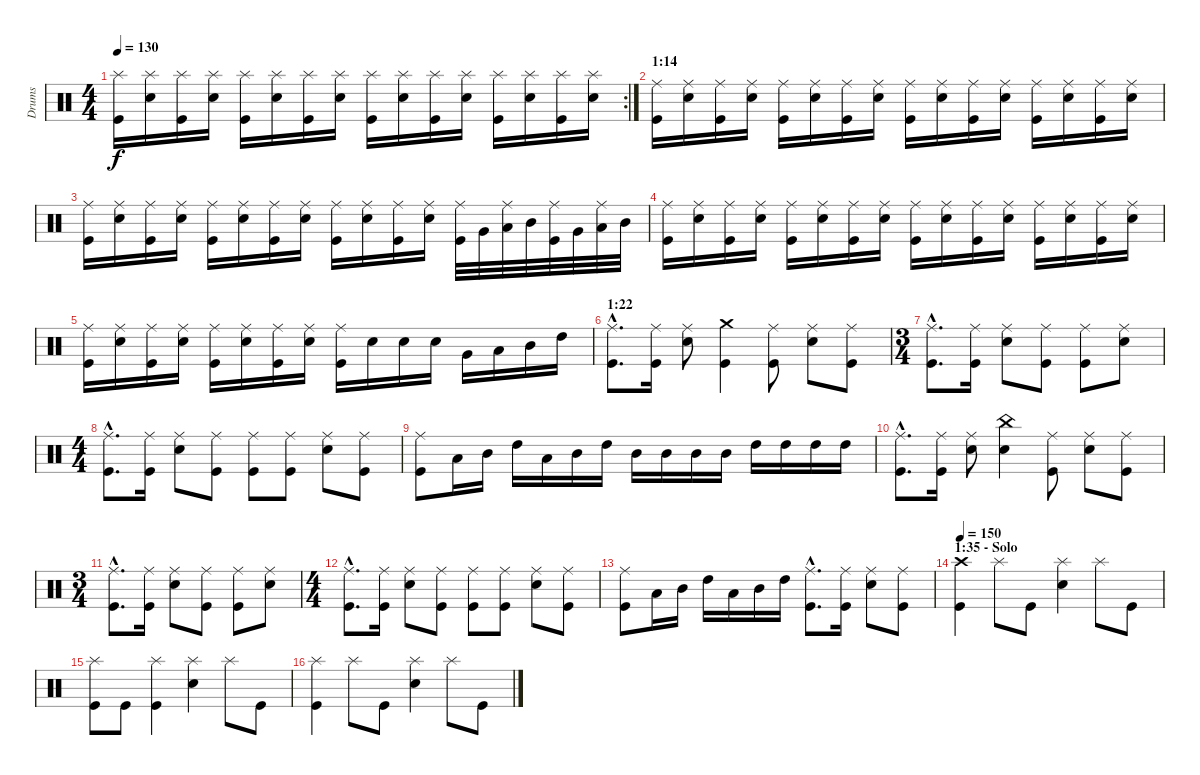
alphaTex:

\track ("Drums" "Drums") {instrument percussion}
\staff {score}
\articulation defaults
\rc 2
\ts (4 4)
\tempo 130
\clef neutral
\ks c
("Kick (hit)" "Splash (hit)").16{dy f} ("Electric Snare (hit)" "Splash (hit)").16 ("Kick (hit)" "Splash (hit)").16 ("Electric Snare (hit)" "Splash (hit)").16 ("Kick (hit)" "Splash (hit)").16 ("Electric Snare (hit)" "Splash (hit)").16 ("Kick (hit)" "Splash (hit)").16 ("Electric Snare (hit)" "Splash (hit)").16 ("Kick (hit)" "Splash (hit)").16 ("Electric Snare (hit)" "Splash (hit)").16 ("Kick (hit)" "Splash (hit)").16 ("Electric Snare (hit)" "Splash (hit)").16 ("Kick (hit)" "Splash (hit)").16 ("Electric Snare (hit)" "Splash (hit)").16 ("Kick (hit)" "Splash (hit)").16 ("Electric Snare (hit)" "Splash (hit)").16 |
\section ("" "1:14")
("Kick (hit)" "Ride (middle)").16 ("Electric Snare (hit)" "Ride (middle)").16 ("Kick (hit)" "Ride (middle)").16 ("Electric Snare (hit)" "Ride (middle)").16 ("Kick (hit)" "Ride (middle)").16 ("Electric Snare (hit)" "Ride (middle)").16 ("Kick (hit)" "Ride (middle)").16 ("Electric Snare (hit)" "Ride (middle)").16 ("Kick (hit)" "Ride (middle)").16 ("Electric Snare (hit)" "Ride (middle)").16 ("Kick (hit)" "Ride (middle)").16 ("Electric Snare (hit)" "Ride (middle)").16 ("Kick (hit)" "Ride (middle)").16 ("Electric Snare (hit)" "Ride (middle)").16 ("Kick (hit)" "Ride (middle)").16 ("Electric Snare (hit)" "Ride (middle)").16 |
("Kick (hit)" "Ride (middle)").16 ("Electric Snare (hit)" "Ride (middle)").16 ("Kick (hit)" "Ride (middle)").16 ("Electric Snare (hit)" "Ride (middle)").16 ("Kick (hit)" "Ride (middle)").16 ("Electric Snare (hit)" "Ride (middle)").16 ("Kick (hit)" "Ride (middle)").16 ("Electric Snare (hit)" "Ride (middle)").16 ("Kick (hit)" "Ride (middle)").16 ("Electric Snare (hit)" "Ride (middle)").16 ("Kick (hit)" "Ride (middle)").16 ("Electric Snare (hit)" "Ride (middle)").16 ("Kick (hit)" "Ride (middle)").32 "Very Low Tom (hit)".32 ("Low Tom (hit)" "Ride (middle)").32 "Mid Tom (hit)".32 ("Kick (hit)" "Ride (middle)").32 "Very Low Tom (hit)".32 ("Low Tom (hit)" "Ride (middle)").32 "Mid Tom (hit)".32 |
("Kick (hit)" "Ride (middle)").16 ("Electric Snare (hit)" "Ride (middle)").16 ("Kick (hit)" "Ride (middle)").16 ("Electric Snare (hit)" "Ride (middle)").16 ("Kick (hit)" "Ride (middle)").16 ("Electric Snare (hit)" "Ride (middle)").16 ("Kick (hit)" "Ride (middle)").16 ("Electric Snare (hit)" "Ride (middle)").16 ("Kick (hit)" "Ride (middle)").16 ("Electric Snare (hit)" "Ride (middle)").16 ("Kick (hit)" "Ride (middle)").16 ("Electric Snare (hit)" "Ride (middle)").16 ("Kick (hit)" "Ride (middle)").16 ("Electric Snare (hit)" "Ride (middle)").16 ("Kick (hit)" "Ride (middle)").16 ("Electric Snare (hit)" "Ride (middle)").16 |
("Kick (hit)" "Ride (middle)").16 ("Electric Snare (hit)" "Ride (middle)").16 ("Kick (hit)" "Ride (middle)").16 ("Electric Snare (hit)" "Ride (middle)").16 ("Kick (hit)" "Ride (middle)").16 ("Electric Snare (hit)" "Ride (middle)").16 ("Kick (hit)" "Ride (middle)").16 ("Electric Snare (hit)" "Ride (middle)").16 ("Kick (hit)" "Ride (middle)").16 "Electric Snare (hit)".16 "Electric Snare (hit)".16 "Electric Snare (hit)".16 "Very Low Tom (hit)".16 "Low Tom (hit)".16 "Mid Tom (hit)".16 "High Tom (hit)".16 |
\section ("" "1:22")
("Kick (hit)"{hac} "Ride (middle)"{hac}).8{d} ("Kick (hit)" "Ride (middle)").16 ("Electric Snare (hit)" "Ride (middle)").8 ("Kick (hit)" "Crash medium (hit)").4 ("Kick (hit)" "Ride (middle)").8 ("Electric Snare (hit)" "Ride (middle)").8 ("Kick (hit)" "Ride (middle)").8 |
\ts (3 4)
("Kick (hit)"{hac} "Ride (middle)"{hac}).8{d} ("Kick (hit)" "Ride (middle)").16 ("Electric Snare (hit)" "Ride (middle)").8 ("Kick (hit)" "Ride (middle)").8 ("Kick (hit)" "Ride (middle)").8 ("Electric Snare (hit)" "Ride (middle)").8 |
\ts (4 4)
("Kick (hit)"{hac} "Ride (middle)"{hac}).8{d} ("Kick (hit)" "Ride (middle)").16 ("Electric Snare (hit)" "Ride (middle)").8 ("Kick (hit)" "Ride (middle)").8 ("Kick (hit)" "Ride (middle)").8 ("Kick (hit)" "Ride (middle)").8 ("Electric Snare (hit)" "Ride (middle)").8 ("Kick (hit)" "Ride (middle)").8 |
("Kick (hit)" "Ride (middle)").8 "Low Tom (hit)".16 "Mid Tom (hit)".16 "High Tom (hit)".16 "Low Tom (hit)".16 "Mid Tom (hit)".16 "High Tom (hit)".16 "Mid Tom (hit)".16 "Mid Tom (hit)".16 "Mid Tom (hit)".16 "Mid Tom (hit)".16 "High Tom (hit)".16 "High Tom (hit)".16 "High Tom (hit)".16 "High Tom (hit)".16 |
("Kick (hit)"{hac} "Ride (middle)"{hac}).8{d} ("Kick (hit)" "Ride (middle)").16 ("Electric Snare (hit)" "Ride (middle)").8 ("Electric Snare (hit)" "China (hit)").4 ("Kick (hit)" "Ride (middle)").8 ("Electric Snare (hit)" "Ride (middle)").8 ("Kick (hit)" "Ride (middle)").8 |
\ts (3 4)
("Kick (hit)"{hac} "Ride (middle)"{hac}).8{d} ("Kick (hit)" "Ride (middle)").16 ("Electric Snare (hit)" "Ride (middle)").8 ("Kick (hit)" "Ride (middle)").8 ("Kick (hit)" "Ride (middle)").8 ("Electric Snare (hit)" "Ride (middle)").8 |
\ts (4 4)
("Kick (hit)"{hac} "Ride (middle)"{hac}).8{d} ("Kick (hit)" "Ride (middle)").16 ("Electric Snare (hit)" "Ride (middle)").8 ("Kick (hit)" "Ride (middle)").8 ("Kick (hit)" "Ride (middle)").8 ("Kick (hit)" "Ride (middle)").8 ("Electric Snare (hit)" "Ride (middle)").8 ("Kick (hit)" "Ride (middle)").8 |
("Kick (hit)" "Ride (middle)").8 "Low Tom (hit)".16 "Mid Tom (hit)".16 "High Tom (hit)".16 "Low Tom (hit)".16 "Mid Tom (hit)".16 "High Tom (hit)".16 ("Kick (hit)"{hac} "Ride (middle)"{hac}).8{d} ("Kick (hit)" "Ride (middle)").16 ("Electric Snare (hit)" "Ride (middle)").8 ("Kick (hit)" "Ride (middle)").8 |
\section ("" "1:35 - Solo")
\tempo 150
("Kick (hit)" "Crash high (hit)").4 "Splash (hit)".8 "Kick (hit)".8 ("Electric Snare (hit)" "Splash (hit)").4 "Splash (hit)".8 "Kick (hit)".8 |
("Kick (hit)" "Splash (hit)").8 "Kick (hit)".8 ("Kick (hit)" "Splash (hit)").4 ("Electric Snare (hit)" "Splash (hit)").4 "Splash (hit)".8 "Kick (hit)".8 |
("Kick (hit)" "Splash (hit)").4 "Splash (hit)".8 "Kick (hit)".8 ("Electric Snare (hit)" "Splash (hit)").4 "Splash (hit)".8 "Kick (hit)".8
